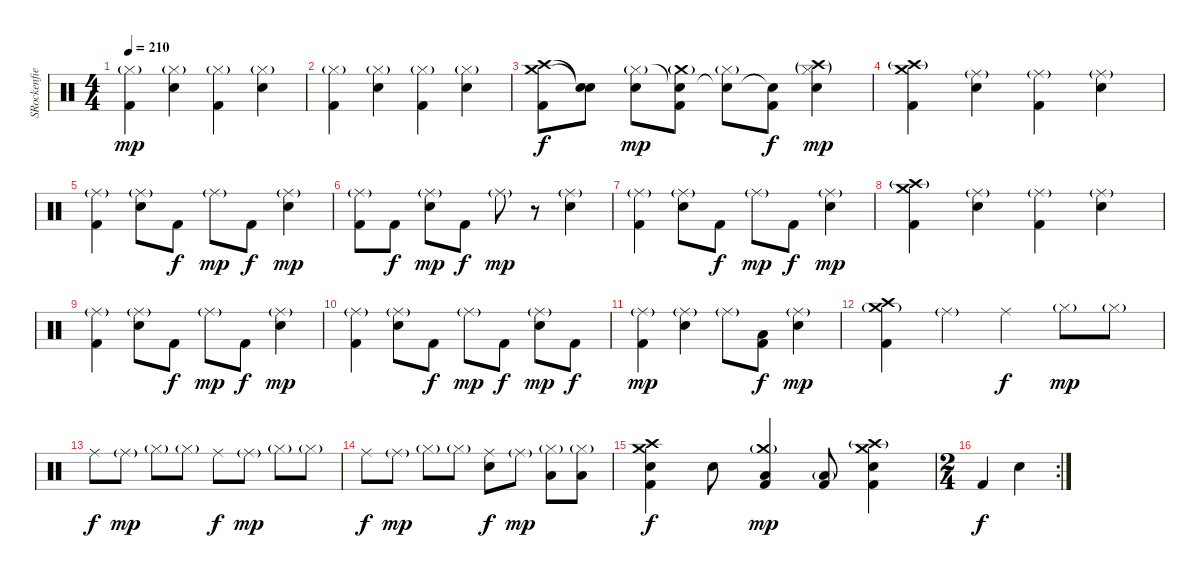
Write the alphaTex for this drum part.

\track ("SRockenfield" "SRockenfie") {instrument percussion}
\staff {score}
\articulation defaults
\ts (4 4)
\tempo 210
\clef neutral
\ks c
("Hi-Hat (closed)"{g} "Kick (hit) 2").4{dy mp} ("Hi-Hat (closed)"{g} "Electric Snare (hit)").4 ("Hi-Hat (closed)"{g} "Kick (hit) 2").4 ("Hi-Hat (closed)"{g} "Electric Snare (hit)").4 |
("Hi-Hat (closed)"{g} "Kick (hit) 2").4 ("Hi-Hat (closed)"{g} "Electric Snare (hit)").4 ("Hi-Hat (closed)"{g} "Kick (hit) 2").4 ("Hi-Hat (closed)"{g} "Electric Snare (hit)").4 |
("Crash high (hit)" "Crash medium (hit)" "Kick (hit) 2").8{dy f} ("Snare (hit)"{t} "Snare (hit)"{t}).8 ("Hi-Hat (closed)"{g} "Electric Snare (hit)").8{dy mp} ("Snare (hit)"{t} "Crash medium (hit)"{g} "Kick (hit) 2").8 ("Snare (hit)"{t} "Hi-Hat (closed)"{g}).8 ("Snare (hit)"{t} "Kick (hit) 2").8{dy f} ("Crash high (hit)"{g} "Hi-Hat (closed)"{g} "Electric Snare (hit)").4{dy mp} |
("Crash high (hit)"{g} "Crash medium (hit)" "Kick (hit) 2").4 ("Ride (middle)"{g} "Electric Snare (hit)").4 ("Ride (middle)"{g} "Kick (hit) 2").4 ("Ride (middle)"{g} "Electric Snare (hit)").4 |
("Ride (middle)"{g} "Kick (hit) 2").4 ("Ride (middle)"{g} "Electric Snare (hit)").8 "Kick (hit) 2".8{dy f} "Ride (middle)"{g}.8{dy mp} "Kick (hit) 2".8{dy f} ("Ride (middle)"{g} "Electric Snare (hit)").4{dy mp} |
("Ride (middle)"{g} "Kick (hit) 2").8 "Kick (hit) 2".8{dy f} ("Ride (middle)"{g} "Electric Snare (hit)").8{dy mp} "Kick (hit) 2".8{dy f} "Ride (middle)"{g}.8{dy mp} r.8 ("Ride (middle)"{g} "Electric Snare (hit)").4 |
("Ride (middle)"{g} "Kick (hit) 2").4 ("Ride (middle)"{g} "Electric Snare (hit)").8 "Kick (hit) 2".8{dy f} "Ride (middle)"{g}.8{dy mp} "Kick (hit) 2".8{dy f} ("Ride (middle)"{g} "Electric Snare (hit)").4{dy mp} |
("Crash high (hit)"{g} "Crash medium (hit)" "Kick (hit) 2").4 ("Ride (middle)"{g} "Electric Snare (hit)").4 ("Ride (middle)"{g} "Kick (hit) 2").4 ("Ride (middle)"{g} "Electric Snare (hit)").4 |
("Ride (middle)"{g} "Kick (hit) 2").4 ("Ride (middle)"{g} "Electric Snare (hit)").8 "Kick (hit) 2".8{dy f} "Ride (middle)"{g}.8{dy mp} "Kick (hit) 2".8{dy f} ("Ride (middle)"{g} "Electric Snare (hit)").4{dy mp} |
("Ride (middle)"{g} "Kick (hit) 2").4 ("Ride (middle)"{g} "Electric Snare (hit)").8 "Kick (hit) 2".8{dy f} "Ride (middle)"{g}.8{dy mp} "Kick (hit) 2".8{dy f} ("Ride (middle)"{g} "Electric Snare (hit)").8{dy mp} "Kick (hit) 2".8{dy f} |
("Ride (middle)"{g} "Kick (hit) 2").4{dy mp} ("Ride (middle)"{g} "Electric Snare (hit)").4 "Ride (middle)"{g}.8 ("Low Floor Tom (hit)" "Kick (hit) 2").8{dy f} ("Ride (middle)"{g} "Electric Snare (hit)").4{dy mp} |
("Crash high (hit)" "Crash medium (hit)"{g} "Kick (hit) 2").4 "Ride (middle)"{g}.4 "Ride (middle)".4{dy f} "Hi-Hat (closed)"{g}.8{dy mp} "Hi-Hat (closed)"{g}.8 |
"Ride (middle)".8{dy f} "Ride (middle)"{g}.8{dy mp} "Hi-Hat (closed)"{g}.8 "Hi-Hat (closed)"{g}.8 "Ride (middle)".8{dy f} "Ride (middle)"{g}.8{dy mp} "Hi-Hat (closed)"{g}.8 "Hi-Hat (closed)"{g}.8 |
"Ride (middle)".8{dy f} "Ride (middle)"{g}.8{dy mp} "Hi-Hat (closed)"{g}.8 "Hi-Hat (closed)"{g}.8 ("Ride (middle)" "Electric Snare (hit)").8{dy f} "Ride (middle)"{g}.8{dy mp} ("Hi-Hat (closed)"{g} "Low Floor Tom (hit)").8 ("Hi-Hat (closed)"{g} "Low Floor Tom (hit)").8 |
("Crash high (hit)" "Crash medium (hit)" "Electric Snare (hit)" "Kick (hit) 2").4{dy f} "Electric Snare (hit)".8 ("Crash medium (hit)"{g} "Low Floor Tom (hit)" "Kick (hit) 2").4{dy mp} ("Low Floor Tom (hit)"{g} "Kick (hit) 2").8 ("Crash high (hit)"{g} "Crash medium (hit)" "Electric Snare (hit)" "Kick (hit) 2").4 |
\rc 2
\ts (2 4)
"Kick (hit) 2".4{dy f} "Electric Snare (hit)".4
